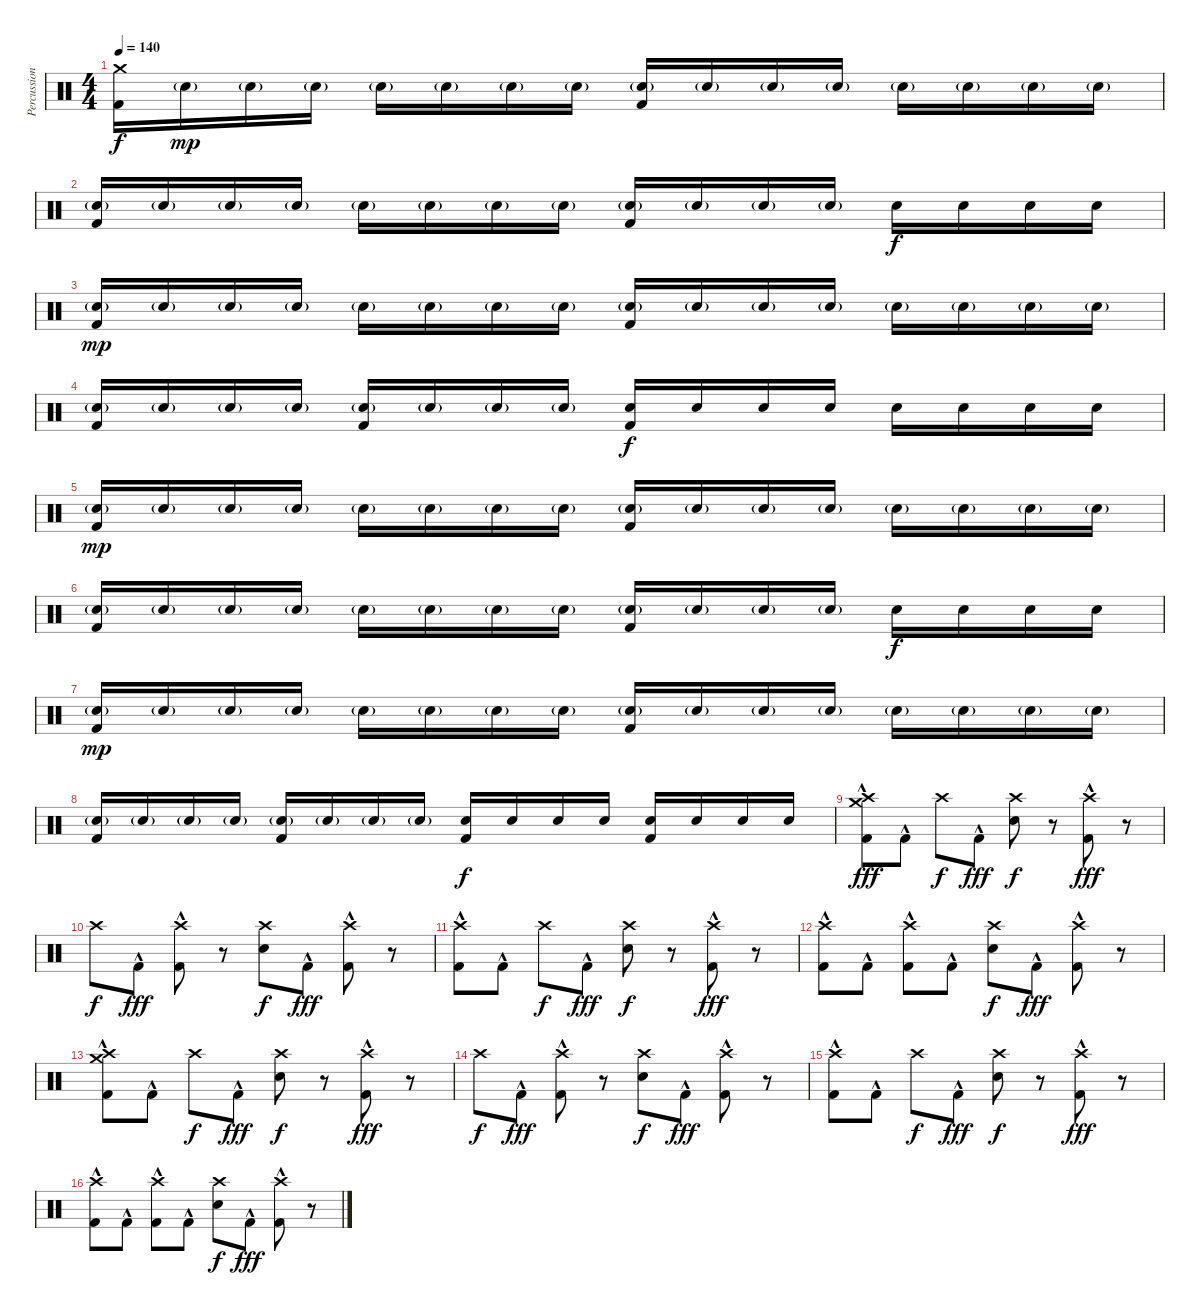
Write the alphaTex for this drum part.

\track ("Percussion" "Percussion") {instrument percussion}
\staff {score}
\articulation defaults
\ts (4 4)
\tempo 140
\clef neutral
\ks c
("Crash medium (hit)" "Kick (hit) 2").16{dy f} "Snare (hit) 2"{g}.16{dy mp} "Snare (hit) 2"{g}.16 "Snare (hit) 2"{g}.16 "Snare (hit) 2"{g}.16 "Snare (hit) 2"{g}.16 "Snare (hit) 2"{g}.16 "Snare (hit) 2"{g}.16 ("Snare (hit) 2"{g} "Kick (hit) 2").16 "Snare (hit) 2"{g}.16 "Snare (hit) 2"{g}.16 "Snare (hit) 2"{g}.16 "Snare (hit) 2"{g}.16 "Snare (hit) 2"{g}.16 "Snare (hit) 2"{g}.16 "Snare (hit) 2"{g}.16 |
("Snare (hit) 2"{g} "Kick (hit) 2").16 "Snare (hit) 2"{g}.16 "Snare (hit) 2"{g}.16 "Snare (hit) 2"{g}.16 "Snare (hit) 2"{g}.16 "Snare (hit) 2"{g}.16 "Snare (hit) 2"{g}.16 "Snare (hit) 2"{g}.16 ("Snare (hit) 2"{g} "Kick (hit) 2").16 "Snare (hit) 2"{g}.16 "Snare (hit) 2"{g}.16 "Snare (hit) 2"{g}.16 "Snare (hit) 2".16{dy f} "Snare (hit) 2".16 "Snare (hit) 2".16 "Snare (hit) 2".16 |
("Snare (hit) 2"{g} "Kick (hit) 2").16{dy mp} "Snare (hit) 2"{g}.16 "Snare (hit) 2"{g}.16 "Snare (hit) 2"{g}.16 "Snare (hit) 2"{g}.16 "Snare (hit) 2"{g}.16 "Snare (hit) 2"{g}.16 "Snare (hit) 2"{g}.16 ("Snare (hit) 2"{g} "Kick (hit) 2").16 "Snare (hit) 2"{g}.16 "Snare (hit) 2"{g}.16 "Snare (hit) 2"{g}.16 "Snare (hit) 2"{g}.16 "Snare (hit) 2"{g}.16 "Snare (hit) 2"{g}.16 "Snare (hit) 2"{g}.16 |
("Snare (hit) 2"{g} "Kick (hit) 2").16 "Snare (hit) 2"{g}.16 "Snare (hit) 2"{g}.16 "Snare (hit) 2"{g}.16 ("Snare (hit) 2"{g} "Kick (hit) 2").16 "Snare (hit) 2"{g}.16 "Snare (hit) 2"{g}.16 "Snare (hit) 2"{g}.16 ("Snare (hit) 2" "Kick (hit) 2").16{dy f} "Snare (hit) 2".16 "Snare (hit) 2".16 "Snare (hit) 2".16 "Snare (hit) 2".16 "Snare (hit) 2".16 "Snare (hit) 2".16 "Snare (hit) 2".16 |
("Snare (hit) 2"{g} "Kick (hit) 2").16{dy mp} "Snare (hit) 2"{g}.16 "Snare (hit) 2"{g}.16 "Snare (hit) 2"{g}.16 "Snare (hit) 2"{g}.16 "Snare (hit) 2"{g}.16 "Snare (hit) 2"{g}.16 "Snare (hit) 2"{g}.16 ("Snare (hit) 2"{g} "Kick (hit) 2").16 "Snare (hit) 2"{g}.16 "Snare (hit) 2"{g}.16 "Snare (hit) 2"{g}.16 "Snare (hit) 2"{g}.16 "Snare (hit) 2"{g}.16 "Snare (hit) 2"{g}.16 "Snare (hit) 2"{g}.16 |
("Snare (hit) 2"{g} "Kick (hit) 2").16 "Snare (hit) 2"{g}.16 "Snare (hit) 2"{g}.16 "Snare (hit) 2"{g}.16 "Snare (hit) 2"{g}.16 "Snare (hit) 2"{g}.16 "Snare (hit) 2"{g}.16 "Snare (hit) 2"{g}.16 ("Snare (hit) 2"{g} "Kick (hit) 2").16 "Snare (hit) 2"{g}.16 "Snare (hit) 2"{g}.16 "Snare (hit) 2"{g}.16 "Snare (hit) 2".16{dy f} "Snare (hit) 2".16 "Snare (hit) 2".16 "Snare (hit) 2".16 |
("Snare (hit) 2"{g} "Kick (hit) 2").16{dy mp} "Snare (hit) 2"{g}.16 "Snare (hit) 2"{g}.16 "Snare (hit) 2"{g}.16 "Snare (hit) 2"{g}.16 "Snare (hit) 2"{g}.16 "Snare (hit) 2"{g}.16 "Snare (hit) 2"{g}.16 ("Snare (hit) 2"{g} "Kick (hit) 2").16 "Snare (hit) 2"{g}.16 "Snare (hit) 2"{g}.16 "Snare (hit) 2"{g}.16 "Snare (hit) 2"{g}.16 "Snare (hit) 2"{g}.16 "Snare (hit) 2"{g}.16 "Snare (hit) 2"{g}.16 |
("Snare (hit) 2"{g} "Kick (hit) 2").16 "Snare (hit) 2"{g}.16 "Snare (hit) 2"{g}.16 "Snare (hit) 2"{g}.16 ("Snare (hit) 2"{g} "Kick (hit) 2").16 "Snare (hit) 2"{g}.16 "Snare (hit) 2"{g}.16 "Snare (hit) 2"{g}.16 ("Snare (hit) 2" "Kick (hit) 2").16{dy f} "Snare (hit) 2".16 "Snare (hit) 2".16 "Snare (hit) 2".16 ("Snare (hit) 2" "Kick (hit) 2").16 "Snare (hit) 2".16 "Snare (hit) 2".16 "Snare (hit) 2".16 |
("Crash medium (hit)" "Crash high (hit)" "Kick (hit) 2"{hac}).8{dy fff} "Kick (hit) 2"{hac}.8 "Crash high (hit)".8{dy f} "Kick (hit) 2"{hac}.8{dy fff} ("Crash high (hit)" "Electric Snare (hit)").8{dy f} r.8 ("Crash high (hit)" "Kick (hit) 2"{hac}).8{dy fff} r.8 |
"Crash high (hit)".8{dy f} "Kick (hit) 2"{hac}.8{dy fff} ("Crash high (hit)" "Kick (hit) 2"{hac}).8 r.8 ("Crash high (hit)" "Electric Snare (hit)").8{dy f} "Kick (hit) 2"{hac}.8{dy fff} ("Crash high (hit)" "Kick (hit) 2"{hac}).8 r.8 |
("Crash high (hit)" "Kick (hit) 2"{hac}).8 "Kick (hit) 2"{hac}.8 "Crash high (hit)".8{dy f} "Kick (hit) 2"{hac}.8{dy fff} ("Crash high (hit)" "Electric Snare (hit)").8{dy f} r.8 ("Crash high (hit)" "Kick (hit) 2"{hac}).8{dy fff} r.8 |
("Crash high (hit)" "Kick (hit) 2"{hac}).8 "Kick (hit) 2"{hac}.8 ("Crash high (hit)" "Kick (hit) 2"{hac}).8 "Kick (hit) 2"{hac}.8 ("Crash high (hit)" "Electric Snare (hit)").8{dy f} "Kick (hit) 2"{hac}.8{dy fff} ("Crash high (hit)" "Kick (hit) 2"{hac}).8 r.8 |
("Crash medium (hit)" "Crash high (hit)" "Kick (hit) 2"{hac}).8 "Kick (hit) 2"{hac}.8 "Crash high (hit)".8{dy f} "Kick (hit) 2"{hac}.8{dy fff} ("Crash high (hit)" "Electric Snare (hit)").8{dy f} r.8 ("Crash high (hit)" "Kick (hit) 2"{hac}).8{dy fff} r.8 |
"Crash high (hit)".8{dy f} "Kick (hit) 2"{hac}.8{dy fff} ("Crash high (hit)" "Kick (hit) 2"{hac}).8 r.8 ("Crash high (hit)" "Electric Snare (hit)").8{dy f} "Kick (hit) 2"{hac}.8{dy fff} ("Crash high (hit)" "Kick (hit) 2"{hac}).8 r.8 |
("Crash high (hit)" "Kick (hit) 2"{hac}).8 "Kick (hit) 2"{hac}.8 "Crash high (hit)".8{dy f} "Kick (hit) 2"{hac}.8{dy fff} ("Crash high (hit)" "Electric Snare (hit)").8{dy f} r.8 ("Crash high (hit)" "Kick (hit) 2"{hac}).8{dy fff} r.8 |
("Crash high (hit)" "Kick (hit) 2"{hac}).8 "Kick (hit) 2"{hac}.8 ("Crash high (hit)" "Kick (hit) 2"{hac}).8 "Kick (hit) 2"{hac}.8 ("Crash high (hit)" "Electric Snare (hit)").8{dy f} "Kick (hit) 2"{hac}.8{dy fff} ("Crash high (hit)" "Kick (hit) 2"{hac}).8 r.8
